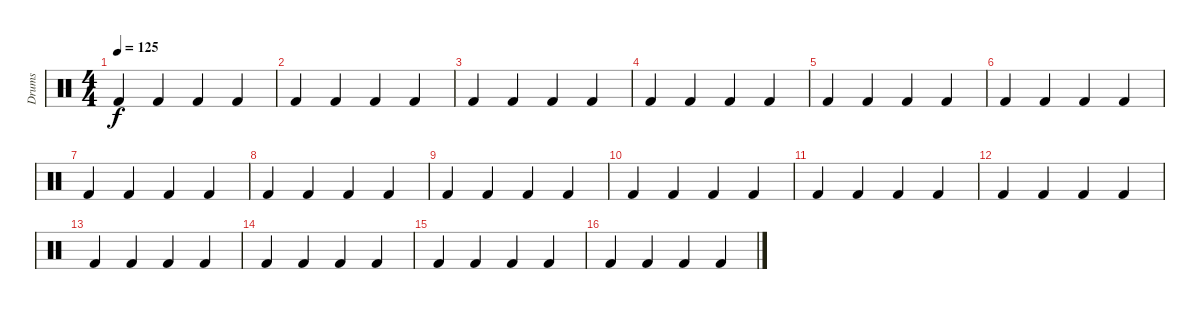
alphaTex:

\track ("Drums" "Drums") {instrument percussion}
\staff {score}
\articulation defaults
\ts (4 4)
\tempo 125
\clef neutral
\ks c "Kick (hit) 2".4{dy f} "Kick (hit) 2".4 "Kick (hit) 2".4 "Kick (hit) 2".4
|
"Kick (hit) 2".4 "Kick (hit) 2".4 "Kick (hit) 2".4 "Kick (hit) 2".4 |
"Kick (hit) 2".4 "Kick (hit) 2".4 "Kick (hit) 2".4 "Kick (hit) 2".4 |
"Kick (hit) 2".4 "Kick (hit) 2".4 "Kick (hit) 2".4 "Kick (hit) 2".4 |
"Kick (hit) 2".4 "Kick (hit) 2".4 "Kick (hit) 2".4 "Kick (hit) 2".4 |
"Kick (hit) 2".4 "Kick (hit) 2".4 "Kick (hit) 2".4 "Kick (hit) 2".4 |
"Kick (hit) 2".4 "Kick (hit) 2".4 "Kick (hit) 2".4 "Kick (hit) 2".4 |
"Kick (hit) 2".4 "Kick (hit) 2".4 "Kick (hit) 2".4 "Kick (hit) 2".4 |
"Kick (hit) 2".4 "Kick (hit) 2".4 "Kick (hit) 2".4 "Kick (hit) 2".4 |
"Kick (hit) 2".4 "Kick (hit) 2".4 "Kick (hit) 2".4 "Kick (hit) 2".4 |
"Kick (hit) 2".4 "Kick (hit) 2".4 "Kick (hit) 2".4 "Kick (hit) 2".4 |
"Kick (hit) 2".4 "Kick (hit) 2".4 "Kick (hit) 2".4 "Kick (hit) 2".4 |
"Kick (hit) 2".4 "Kick (hit) 2".4 "Kick (hit) 2".4 "Kick (hit) 2".4 |
"Kick (hit) 2".4 "Kick (hit) 2".4 "Kick (hit) 2".4 "Kick (hit) 2".4 |
"Kick (hit) 2".4 "Kick (hit) 2".4 "Kick (hit) 2".4 "Kick (hit) 2".4 |
"Kick (hit) 2".4 "Kick (hit) 2".4 "Kick (hit) 2".4 "Kick (hit) 2".4
